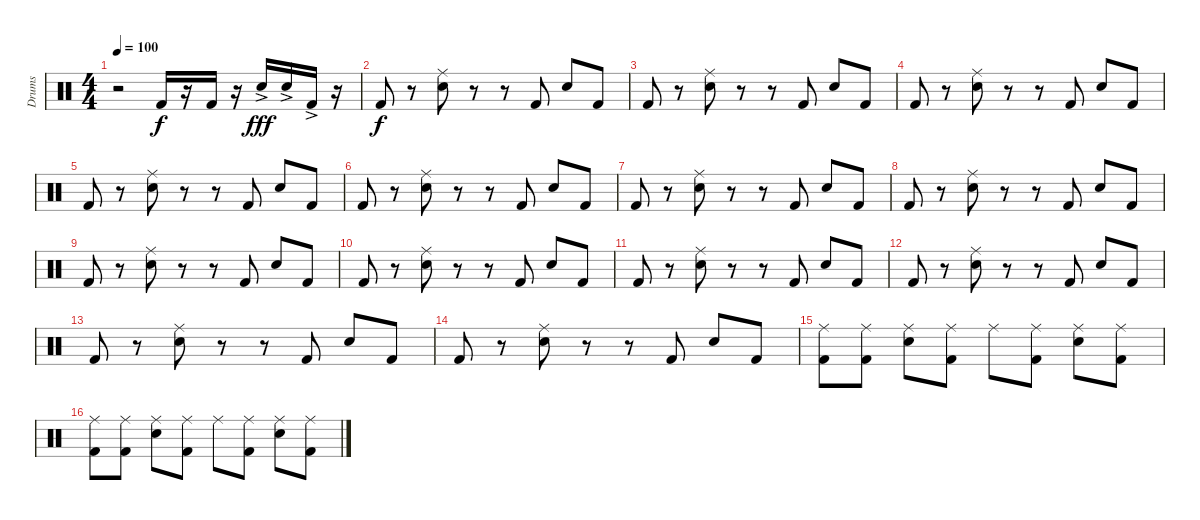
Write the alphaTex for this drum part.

\track ("Drums" "Drums") {instrument percussion}
\staff {score}
\articulation defaults
\ts (4 4)
\tempo 100
\clef neutral
\ks c
r.2{dy f} "Kick (hit) 2".16 r.16 "Kick (hit) 2".16 r.16 "Snare (hit) 2"{ac}.16{dy fff} "Snare (hit) 2"{ac}.16 "Kick (hit) 2"{ac}.16 r.16 |
"Kick (hit) 2".8{dy f} r.8 ("Ride (middle)" "Snare (hit) 2").8 r.8 r.8 "Kick (hit) 2".8 "Snare (hit) 2".8 "Kick (hit) 2".8 |
"Kick (hit) 2".8 r.8 ("Ride (middle)" "Snare (hit) 2").8 r.8 r.8 "Kick (hit) 2".8 "Snare (hit) 2".8 "Kick (hit) 2".8 |
"Kick (hit) 2".8 r.8 ("Ride (middle)" "Snare (hit) 2").8 r.8 r.8 "Kick (hit) 2".8 "Snare (hit) 2".8 "Kick (hit) 2".8 |
"Kick (hit) 2".8 r.8 ("Ride (middle)" "Snare (hit) 2").8 r.8 r.8 "Kick (hit) 2".8 "Snare (hit) 2".8 "Kick (hit) 2".8 |
"Kick (hit) 2".8 r.8 ("Ride (middle)" "Snare (hit) 2").8 r.8 r.8 "Kick (hit) 2".8 "Snare (hit) 2".8 "Kick (hit) 2".8 |
"Kick (hit) 2".8 r.8 ("Ride (middle)" "Snare (hit) 2").8 r.8 r.8 "Kick (hit) 2".8 "Snare (hit) 2".8 "Kick (hit) 2".8 |
"Kick (hit) 2".8 r.8 ("Ride (middle)" "Snare (hit) 2").8 r.8 r.8 "Kick (hit) 2".8 "Snare (hit) 2".8 "Kick (hit) 2".8 |
"Kick (hit) 2".8 r.8 ("Ride (middle)" "Snare (hit) 2").8 r.8 r.8 "Kick (hit) 2".8 "Snare (hit) 2".8 "Kick (hit) 2".8 |
"Kick (hit) 2".8 r.8 ("Ride (middle)" "Snare (hit) 2").8 r.8 r.8 "Kick (hit) 2".8 "Snare (hit) 2".8 "Kick (hit) 2".8 |
"Kick (hit) 2".8 r.8 ("Ride (middle)" "Snare (hit) 2").8 r.8 r.8 "Kick (hit) 2".8 "Snare (hit) 2".8 "Kick (hit) 2".8 |
"Kick (hit) 2".8 r.8 ("Ride (middle)" "Snare (hit) 2").8 r.8 r.8 "Kick (hit) 2".8 "Snare (hit) 2".8 "Kick (hit) 2".8 |
"Kick (hit) 2".8 r.8 ("Ride (middle)" "Snare (hit) 2").8 r.8 r.8 "Kick (hit) 2".8 "Snare (hit) 2".8 "Kick (hit) 2".8 |
"Kick (hit) 2".8 r.8 ("Ride (middle)" "Snare (hit) 2").8 r.8 r.8 "Kick (hit) 2".8 "Snare (hit) 2".8 "Kick (hit) 2".8 |
("Ride (middle)" "Kick (hit) 2").8 ("Ride (middle)" "Kick (hit) 2").8 ("Ride (middle)" "Snare (hit) 2").8 ("Ride (middle)" "Kick (hit) 2").8 "Ride (middle)".8 ("Ride (middle)" "Kick (hit) 2").8 ("Ride (middle)" "Snare (hit) 2").8 ("Ride (middle)" "Kick (hit) 2").8 |
("Ride (middle)" "Kick (hit) 2").8 ("Ride (middle)" "Kick (hit) 2").8 ("Ride (middle)" "Snare (hit) 2").8 ("Ride (middle)" "Kick (hit) 2").8 "Ride (middle)".8 ("Ride (middle)" "Kick (hit) 2").8 ("Ride (middle)" "Snare (hit) 2").8 ("Ride (middle)" "Kick (hit) 2").8
